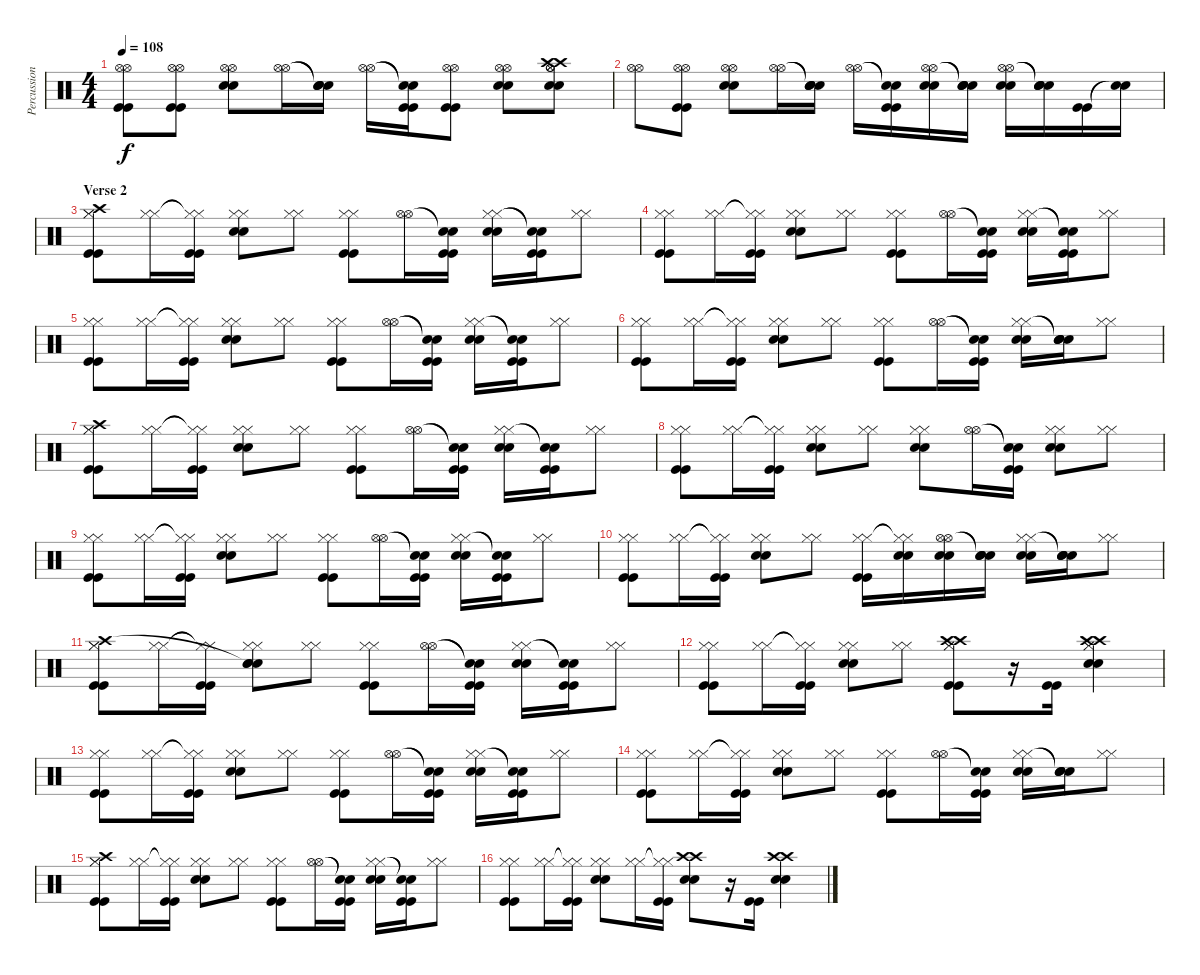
\track ("Percussion" "Percussion") {instrument percussion}
\staff {score}
\articulation defaults
\ts (4 4)
\tempo 108
\clef neutral
\ks c
("Hi-Hat (open)" "Hi-Hat (open)" "Kick (hit)" "Kick (hit)").8{dy f} ("Hi-Hat (open)" "Hi-Hat (open)" "Kick (hit)" "Kick (hit)").8 ("Hi-Hat (open)" "Hi-Hat (open)" "Electric Snare (hit)" "Electric Snare (hit)").8 ("Hi-Hat (open)" "Hi-Hat (open)").16 ("Snare (hit)"{t} "Snare (hit)"{t} "Electric Snare (hit)" "Electric Snare (hit)").16 ("Hi-Hat (open)" "Hi-Hat (open)").16 ("Snare (hit)"{t} "Snare (hit)"{t} "Kick (hit)" "Kick (hit)").16 ("Hi-Hat (open)" "Hi-Hat (open)" "Kick (hit)" "Kick (hit)").8 ("Hi-Hat (open)" "Hi-Hat (open)" "Electric Snare (hit)" "Electric Snare (hit)").8 ("Hi-Hat (open)" "Hi-Hat (open)" "Electric Snare (hit)" "Electric Snare (hit)" "Crash high (hit)" "Crash high (hit)").8 |
("Hi-Hat (open)" "Hi-Hat (open)").8 ("Hi-Hat (open)" "Hi-Hat (open)" "Kick (hit)" "Kick (hit)").8 ("Hi-Hat (open)" "Hi-Hat (open)" "Electric Snare (hit)" "Electric Snare (hit)").8 ("Hi-Hat (open)" "Hi-Hat (open)").16 ("Snare (hit)"{t} "Snare (hit)"{t} "Electric Snare (hit)" "Electric Snare (hit)").16 ("Hi-Hat (open)" "Hi-Hat (open)").16 ("Snare (hit)"{t} "Snare (hit)"{t} "Kick (hit)" "Kick (hit)").16 ("Hi-Hat (open)" "Hi-Hat (open)" "Electric Snare (hit)" "Electric Snare (hit)").16 ("Snare (hit)"{t} "Snare (hit)"{t} "Electric Snare (hit)" "Electric Snare (hit)").16 ("Hi-Hat (open)" "Hi-Hat (open)" "Electric Snare (hit)" "Electric Snare (hit)").16 ("Snare (hit)"{t} "Snare (hit)"{t} "Electric Snare (hit)" "Electric Snare (hit)").16 ("Kick (hit)" "Kick (hit)").16 ("Snare (hit)"{t} "Snare (hit)"{t}).16 |
\section ("" "Verse 2")
("Hi-Hat (closed)" "Hi-Hat (closed)" "Kick (hit)" "Kick (hit)" "Crash high (hit)").8 ("Hi-Hat (closed)" "Hi-Hat (closed)").16 ("Hi-Hat (closed)"{t} "Hi-Hat (closed)"{t} "Kick (hit)" "Kick (hit)").16 ("Hi-Hat (closed)" "Hi-Hat (closed)" "Electric Snare (hit)" "Electric Snare (hit)").8 ("Hi-Hat (closed)" "Hi-Hat (closed)").8 ("Hi-Hat (closed)" "Hi-Hat (closed)" "Kick (hit)" "Kick (hit)").8 ("Hi-Hat (open)" "Hi-Hat (open)").16 ("Snare (hit)"{t} "Snare (hit)"{t} "Kick (hit)" "Kick (hit)").16 ("Hi-Hat (closed)" "Hi-Hat (closed)" "Electric Snare (hit)" "Electric Snare (hit)").16 ("Snare (hit)"{t} "Snare (hit)"{t} "Kick (hit)" "Kick (hit)").16 ("Hi-Hat (closed)" "Hi-Hat (closed)").8 |
("Hi-Hat (closed)" "Hi-Hat (closed)" "Kick (hit)" "Kick (hit)").8 ("Hi-Hat (closed)" "Hi-Hat (closed)").16 ("Hi-Hat (closed)"{t} "Hi-Hat (closed)"{t} "Kick (hit)" "Kick (hit)").16 ("Hi-Hat (closed)" "Hi-Hat (closed)" "Electric Snare (hit)" "Electric Snare (hit)").8 ("Hi-Hat (closed)" "Hi-Hat (closed)").8 ("Hi-Hat (closed)" "Hi-Hat (closed)" "Kick (hit)" "Kick (hit)").8 ("Hi-Hat (open)" "Hi-Hat (open)").16 ("Snare (hit)"{t} "Snare (hit)"{t} "Kick (hit)" "Kick (hit)").16 ("Hi-Hat (closed)" "Hi-Hat (closed)" "Electric Snare (hit)" "Electric Snare (hit)").16 ("Snare (hit)"{t} "Snare (hit)"{t} "Kick (hit)" "Kick (hit)").16 ("Hi-Hat (closed)" "Hi-Hat (closed)").8 |
("Hi-Hat (closed)" "Hi-Hat (closed)" "Kick (hit)" "Kick (hit)").8 ("Hi-Hat (closed)" "Hi-Hat (closed)").16 ("Hi-Hat (closed)"{t} "Hi-Hat (closed)"{t} "Kick (hit)" "Kick (hit)").16 ("Hi-Hat (closed)" "Hi-Hat (closed)" "Electric Snare (hit)" "Electric Snare (hit)").8 ("Hi-Hat (closed)" "Hi-Hat (closed)").8 ("Hi-Hat (closed)" "Hi-Hat (closed)" "Kick (hit)" "Kick (hit)").8 ("Hi-Hat (open)" "Hi-Hat (open)").16 ("Snare (hit)"{t} "Snare (hit)"{t} "Kick (hit)" "Kick (hit)").16 ("Hi-Hat (closed)" "Hi-Hat (closed)" "Electric Snare (hit)" "Electric Snare (hit)").16 ("Snare (hit)"{t} "Snare (hit)"{t} "Kick (hit)" "Kick (hit)").16 ("Hi-Hat (closed)" "Hi-Hat (closed)").8 |
("Hi-Hat (closed)" "Hi-Hat (closed)" "Kick (hit)" "Kick (hit)").8 ("Hi-Hat (closed)" "Hi-Hat (closed)").16 ("Hi-Hat (closed)"{t} "Hi-Hat (closed)"{t} "Kick (hit)" "Kick (hit)").16 ("Hi-Hat (closed)" "Hi-Hat (closed)" "Electric Snare (hit)" "Electric Snare (hit)").8 ("Hi-Hat (closed)" "Hi-Hat (closed)").8 ("Hi-Hat (closed)" "Hi-Hat (closed)" "Kick (hit)" "Kick (hit)").8 ("Hi-Hat (open)" "Hi-Hat (open)").16 ("Snare (hit)"{t} "Snare (hit)"{t} "Kick (hit)" "Kick (hit)").16 ("Hi-Hat (closed)" "Hi-Hat (closed)" "Electric Snare (hit)" "Electric Snare (hit)").16 ("Snare (hit)"{t} "Snare (hit)"{t} "Electric Snare (hit)" "Electric Snare (hit)").16 ("Hi-Hat (closed)" "Hi-Hat (closed)").8 |
("Hi-Hat (closed)" "Hi-Hat (closed)" "Kick (hit)" "Kick (hit)" "Crash high (hit)").8 ("Hi-Hat (closed)" "Hi-Hat (closed)").16 ("Hi-Hat (closed)"{t} "Hi-Hat (closed)"{t} "Kick (hit)" "Kick (hit)").16 ("Hi-Hat (closed)" "Hi-Hat (closed)" "Electric Snare (hit)" "Electric Snare (hit)").8 ("Hi-Hat (closed)" "Hi-Hat (closed)").8 ("Hi-Hat (closed)" "Hi-Hat (closed)" "Kick (hit)" "Kick (hit)").8 ("Hi-Hat (open)" "Hi-Hat (open)").16 ("Snare (hit)"{t} "Snare (hit)"{t} "Kick (hit)" "Kick (hit)").16 ("Hi-Hat (closed)" "Hi-Hat (closed)" "Electric Snare (hit)" "Electric Snare (hit)").16 ("Snare (hit)"{t} "Snare (hit)"{t} "Kick (hit)" "Kick (hit)").16 ("Hi-Hat (closed)" "Hi-Hat (closed)").8 |
("Hi-Hat (closed)" "Hi-Hat (closed)" "Kick (hit)" "Kick (hit)").8 ("Hi-Hat (closed)" "Hi-Hat (closed)").16 ("Hi-Hat (closed)"{t} "Hi-Hat (closed)"{t} "Kick (hit)" "Kick (hit)").16 ("Hi-Hat (closed)" "Hi-Hat (closed)" "Electric Snare (hit)" "Electric Snare (hit)").8 ("Hi-Hat (closed)" "Hi-Hat (closed)").8 ("Hi-Hat (closed)" "Hi-Hat (closed)" "Electric Snare (hit)" "Electric Snare (hit)").8 ("Hi-Hat (open)" "Hi-Hat (open)").16 ("Snare (hit)"{t} "Snare (hit)"{t} "Kick (hit)" "Kick (hit)").16 ("Hi-Hat (closed)" "Hi-Hat (closed)" "Electric Snare (hit)" "Electric Snare (hit)").8 ("Hi-Hat (closed)" "Hi-Hat (closed)").8 |
("Hi-Hat (closed)" "Hi-Hat (closed)" "Kick (hit)" "Kick (hit)").8 ("Hi-Hat (closed)" "Hi-Hat (closed)").16 ("Hi-Hat (closed)"{t} "Hi-Hat (closed)"{t} "Kick (hit)" "Kick (hit)").16 ("Hi-Hat (closed)" "Hi-Hat (closed)" "Electric Snare (hit)" "Electric Snare (hit)").8 ("Hi-Hat (closed)" "Hi-Hat (closed)").8 ("Hi-Hat (closed)" "Hi-Hat (closed)" "Kick (hit)" "Kick (hit)").8 ("Hi-Hat (open)" "Hi-Hat (open)").16 ("Snare (hit)"{t} "Snare (hit)"{t} "Kick (hit)" "Kick (hit)").16 ("Hi-Hat (closed)" "Hi-Hat (closed)" "Electric Snare (hit)" "Electric Snare (hit)").16 ("Snare (hit)"{t} "Snare (hit)"{t} "Kick (hit)" "Kick (hit)").16 ("Hi-Hat (closed)" "Hi-Hat (closed)").8 |
("Hi-Hat (closed)" "Hi-Hat (closed)" "Kick (hit)" "Kick (hit)").8 ("Hi-Hat (closed)" "Hi-Hat (closed)").16 ("Hi-Hat (closed)"{t} "Hi-Hat (closed)"{t} "Kick (hit)" "Kick (hit)").16 ("Hi-Hat (closed)" "Hi-Hat (closed)" "Electric Snare (hit)" "Electric Snare (hit)").8 ("Hi-Hat (closed)" "Hi-Hat (closed)").8 ("Hi-Hat (closed)" "Hi-Hat (closed)" "Kick (hit)" "Kick (hit)").16 ("Hi-Hat (closed)"{t} "Hi-Hat (closed)"{t} "Electric Snare (hit)" "Electric Snare (hit)").16 ("Hi-Hat (open)" "Hi-Hat (open)" "Electric Snare (hit)" "Electric Snare (hit)").16 ("Snare (hit)"{t} "Snare (hit)"{t} "Electric Snare (hit)" "Electric Snare (hit)").16 ("Hi-Hat (closed)" "Hi-Hat (closed)" "Electric Snare (hit)" "Electric Snare (hit)").16 ("Snare (hit)"{t} "Snare (hit)"{t} "Electric Snare (hit)" "Electric Snare (hit)").16 ("Hi-Hat (closed)" "Hi-Hat (closed)").8 |
("Hi-Hat (closed)" "Hi-Hat (closed)" "Kick (hit)" "Kick (hit)" "Crash high (hit)").8 ("Hi-Hat (closed)" "Hi-Hat (closed)").16 ("Hi-Hat (closed)"{t} "Hi-Hat (closed)"{t} "Kick (hit)" "Kick (hit)").16 ("Hi-Hat (closed)" "Hi-Hat (closed)" "Electric Snare (hit)" "Electric Snare (hit)" "Snare (hit)"{t}).8 ("Hi-Hat (closed)" "Hi-Hat (closed)").8 ("Hi-Hat (closed)" "Hi-Hat (closed)" "Kick (hit)" "Kick (hit)").8 ("Hi-Hat (open)" "Hi-Hat (open)").16 ("Snare (hit)"{t} "Snare (hit)"{t} "Kick (hit)" "Kick (hit)").16 ("Hi-Hat (closed)" "Hi-Hat (closed)" "Electric Snare (hit)" "Electric Snare (hit)").16 ("Snare (hit)"{t} "Snare (hit)"{t} "Kick (hit)" "Kick (hit)").16 ("Hi-Hat (closed)" "Hi-Hat (closed)").8 |
("Hi-Hat (closed)" "Hi-Hat (closed)" "Kick (hit)" "Kick (hit)").8 ("Hi-Hat (closed)" "Hi-Hat (closed)").16 ("Hi-Hat (closed)"{t} "Hi-Hat (closed)"{t} "Kick (hit)" "Kick (hit)").16 ("Hi-Hat (closed)" "Hi-Hat (closed)" "Electric Snare (hit)" "Electric Snare (hit)").8 ("Hi-Hat (closed)" "Hi-Hat (closed)").8 ("Hi-Hat (closed)" "Hi-Hat (closed)" "Kick (hit)" "Kick (hit)" "Crash high (hit)" "Crash high (hit)").8 r.16 ("Kick (hit)" "Kick (hit)").16 ("Hi-Hat (closed)" "Hi-Hat (closed)" "Electric Snare (hit)" "Electric Snare (hit)" "Crash high (hit)" "Crash high (hit)").4 |
("Hi-Hat (closed)" "Hi-Hat (closed)" "Kick (hit)" "Kick (hit)").8 ("Hi-Hat (closed)" "Hi-Hat (closed)").16 ("Hi-Hat (closed)"{t} "Hi-Hat (closed)"{t} "Kick (hit)" "Kick (hit)").16 ("Hi-Hat (closed)" "Hi-Hat (closed)" "Electric Snare (hit)" "Electric Snare (hit)").8 ("Hi-Hat (closed)" "Hi-Hat (closed)").8 ("Hi-Hat (closed)" "Hi-Hat (closed)" "Kick (hit)" "Kick (hit)").8 ("Hi-Hat (open)" "Hi-Hat (open)").16 ("Snare (hit)"{t} "Snare (hit)"{t} "Kick (hit)" "Kick (hit)").16 ("Hi-Hat (closed)" "Hi-Hat (closed)" "Electric Snare (hit)" "Electric Snare (hit)").16 ("Snare (hit)"{t} "Snare (hit)"{t} "Kick (hit)" "Kick (hit)").16 ("Hi-Hat (closed)" "Hi-Hat (closed)").8 |
("Hi-Hat (closed)" "Hi-Hat (closed)" "Kick (hit)" "Kick (hit)").8 ("Hi-Hat (closed)" "Hi-Hat (closed)").16 ("Hi-Hat (closed)"{t} "Hi-Hat (closed)"{t} "Kick (hit)" "Kick (hit)").16 ("Hi-Hat (closed)" "Hi-Hat (closed)" "Electric Snare (hit)" "Electric Snare (hit)").8 ("Hi-Hat (closed)" "Hi-Hat (closed)").8 ("Hi-Hat (closed)" "Hi-Hat (closed)" "Kick (hit)" "Kick (hit)").8 ("Hi-Hat (open)" "Hi-Hat (open)").16 ("Snare (hit)"{t} "Snare (hit)"{t} "Kick (hit)" "Kick (hit)").16 ("Hi-Hat (closed)" "Hi-Hat (closed)" "Electric Snare (hit)" "Electric Snare (hit)").16 ("Snare (hit)"{t} "Snare (hit)"{t} "Electric Snare (hit)" "Electric Snare (hit)").16 ("Hi-Hat (closed)" "Hi-Hat (closed)").8 |
("Hi-Hat (closed)" "Hi-Hat (closed)" "Kick (hit)" "Kick (hit)" "Crash high (hit)").8 ("Hi-Hat (closed)" "Hi-Hat (closed)").16 ("Hi-Hat (closed)"{t} "Hi-Hat (closed)"{t} "Kick (hit)" "Kick (hit)").16 ("Hi-Hat (closed)" "Hi-Hat (closed)" "Electric Snare (hit)" "Electric Snare (hit)").8 ("Hi-Hat (closed)" "Hi-Hat (closed)").8 ("Hi-Hat (closed)" "Hi-Hat (closed)" "Kick (hit)" "Kick (hit)").8 ("Hi-Hat (open)" "Hi-Hat (open)").16 ("Snare (hit)"{t} "Snare (hit)"{t} "Kick (hit)" "Kick (hit)").16 ("Hi-Hat (closed)" "Hi-Hat (closed)" "Electric Snare (hit)" "Electric Snare (hit)").16 ("Snare (hit)"{t} "Snare (hit)"{t} "Kick (hit)" "Kick (hit)").16 ("Hi-Hat (closed)" "Hi-Hat (closed)").8 |
("Hi-Hat (closed)" "Hi-Hat (closed)" "Kick (hit)" "Kick (hit)").8 ("Hi-Hat (closed)" "Hi-Hat (closed)").16 ("Hi-Hat (closed)"{t} "Hi-Hat (closed)"{t} "Kick (hit)" "Kick (hit)").16 ("Hi-Hat (closed)" "Hi-Hat (closed)" "Electric Snare (hit)" "Electric Snare (hit)").8 ("Hi-Hat (closed)" "Hi-Hat (closed)").16 ("Hi-Hat (closed)"{t} "Hi-Hat (closed)"{t} "Kick (hit)" "Kick (hit)").16 ("Crash high (hit)" "Crash high (hit)" "Electric Snare (hit)" "Electric Snare (hit)").8 r.16 ("Kick (hit)" "Kick (hit)").16 ("Crash high (hit)" "Crash high (hit)" "Electric Snare (hit)" "Electric Snare (hit)").4
